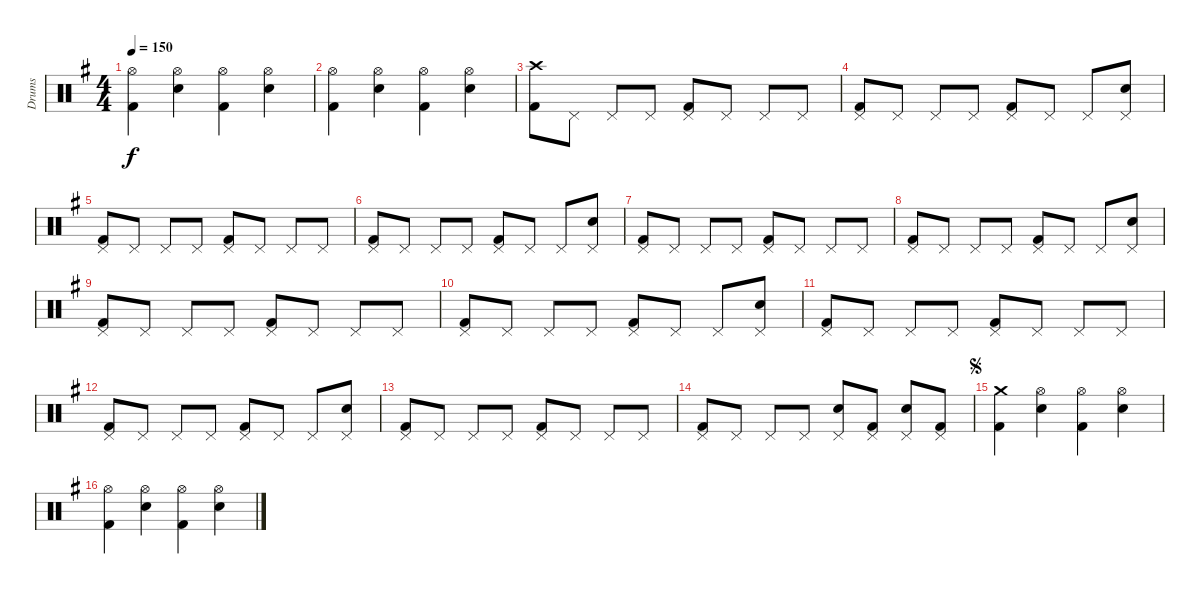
\track ("Drums" "Drums") {instrument percussion}
\staff {score}
\articulation defaults
\ts (4 4)
\tempo 150
\clef neutral
\ks g
("Hi-Hat (open)" "Kick (hit) 2").4{dy f} ("Hi-Hat (open)" "Electric Snare (hit)").4 ("Hi-Hat (open)" "Kick (hit) 2").4 ("Hi-Hat (open)" "Electric Snare (hit)").4 |
("Hi-Hat (open)" "Kick (hit) 2").4 ("Hi-Hat (open)" "Electric Snare (hit)").4 ("Hi-Hat (open)" "Kick (hit) 2").4 ("Hi-Hat (open)" "Electric Snare (hit)").4 |
("Crash high (hit)" "Kick (hit) 2").8 "Pedal Hi-Hat (hit)".8 "Pedal Hi-Hat (hit)".8 "Pedal Hi-Hat (hit)".8 ("Pedal Hi-Hat (hit)" "Kick (hit) 2").8 "Pedal Hi-Hat (hit)".8 "Pedal Hi-Hat (hit)".8 "Pedal Hi-Hat (hit)".8 |
("Pedal Hi-Hat (hit)" "Kick (hit) 2").8 "Pedal Hi-Hat (hit)".8 "Pedal Hi-Hat (hit)".8 "Pedal Hi-Hat (hit)".8 ("Pedal Hi-Hat (hit)" "Kick (hit) 2").8 "Pedal Hi-Hat (hit)".8 "Pedal Hi-Hat (hit)".8 ("Pedal Hi-Hat (hit)" "Electric Snare (hit)").8 |
("Pedal Hi-Hat (hit)" "Kick (hit) 2").8 "Pedal Hi-Hat (hit)".8 "Pedal Hi-Hat (hit)".8 "Pedal Hi-Hat (hit)".8 ("Pedal Hi-Hat (hit)" "Kick (hit) 2").8 "Pedal Hi-Hat (hit)".8 "Pedal Hi-Hat (hit)".8 "Pedal Hi-Hat (hit)".8 |
("Pedal Hi-Hat (hit)" "Kick (hit) 2").8 "Pedal Hi-Hat (hit)".8 "Pedal Hi-Hat (hit)".8 "Pedal Hi-Hat (hit)".8 ("Pedal Hi-Hat (hit)" "Kick (hit) 2").8 "Pedal Hi-Hat (hit)".8 "Pedal Hi-Hat (hit)".8 ("Pedal Hi-Hat (hit)" "Electric Snare (hit)").8 |
("Pedal Hi-Hat (hit)" "Kick (hit) 2").8 "Pedal Hi-Hat (hit)".8 "Pedal Hi-Hat (hit)".8 "Pedal Hi-Hat (hit)".8 ("Pedal Hi-Hat (hit)" "Kick (hit) 2").8 "Pedal Hi-Hat (hit)".8 "Pedal Hi-Hat (hit)".8 "Pedal Hi-Hat (hit)".8 |
("Pedal Hi-Hat (hit)" "Kick (hit) 2").8 "Pedal Hi-Hat (hit)".8 "Pedal Hi-Hat (hit)".8 "Pedal Hi-Hat (hit)".8 ("Pedal Hi-Hat (hit)" "Kick (hit) 2").8 "Pedal Hi-Hat (hit)".8 "Pedal Hi-Hat (hit)".8 ("Pedal Hi-Hat (hit)" "Electric Snare (hit)").8 |
("Pedal Hi-Hat (hit)" "Kick (hit) 2").8 "Pedal Hi-Hat (hit)".8 "Pedal Hi-Hat (hit)".8 "Pedal Hi-Hat (hit)".8 ("Pedal Hi-Hat (hit)" "Kick (hit) 2").8 "Pedal Hi-Hat (hit)".8 "Pedal Hi-Hat (hit)".8 "Pedal Hi-Hat (hit)".8 |
("Pedal Hi-Hat (hit)" "Kick (hit) 2").8 "Pedal Hi-Hat (hit)".8 "Pedal Hi-Hat (hit)".8 "Pedal Hi-Hat (hit)".8 ("Pedal Hi-Hat (hit)" "Kick (hit) 2").8 "Pedal Hi-Hat (hit)".8 "Pedal Hi-Hat (hit)".8 ("Pedal Hi-Hat (hit)" "Electric Snare (hit)").8 |
("Pedal Hi-Hat (hit)" "Kick (hit) 2").8 "Pedal Hi-Hat (hit)".8 "Pedal Hi-Hat (hit)".8 "Pedal Hi-Hat (hit)".8 ("Pedal Hi-Hat (hit)" "Kick (hit) 2").8 "Pedal Hi-Hat (hit)".8 "Pedal Hi-Hat (hit)".8 "Pedal Hi-Hat (hit)".8 |
("Pedal Hi-Hat (hit)" "Kick (hit) 2").8 "Pedal Hi-Hat (hit)".8 "Pedal Hi-Hat (hit)".8 "Pedal Hi-Hat (hit)".8 ("Pedal Hi-Hat (hit)" "Kick (hit) 2").8 "Pedal Hi-Hat (hit)".8 "Pedal Hi-Hat (hit)".8 ("Pedal Hi-Hat (hit)" "Electric Snare (hit)").8 |
("Pedal Hi-Hat (hit)" "Kick (hit) 2").8 "Pedal Hi-Hat (hit)".8 "Pedal Hi-Hat (hit)".8 "Pedal Hi-Hat (hit)".8 ("Pedal Hi-Hat (hit)" "Kick (hit) 2").8 "Pedal Hi-Hat (hit)".8 "Pedal Hi-Hat (hit)".8 "Pedal Hi-Hat (hit)".8 |
("Pedal Hi-Hat (hit)" "Kick (hit) 2").8 "Pedal Hi-Hat (hit)".8 "Pedal Hi-Hat (hit)".8 "Pedal Hi-Hat (hit)".8 ("Pedal Hi-Hat (hit)" "Electric Snare (hit)").8 ("Pedal Hi-Hat (hit)" "Kick (hit) 2").8 ("Pedal Hi-Hat (hit)" "Electric Snare (hit)").8 ("Pedal Hi-Hat (hit)" "Kick (hit) 2").8 |
\jump segno
("Crash medium (hit)" "Kick (hit) 2").4 ("Hi-Hat (open)" "Electric Snare (hit)").4 ("Hi-Hat (open)" "Kick (hit) 2").4 ("Hi-Hat (open)" "Electric Snare (hit)").4 |
("Hi-Hat (open)" "Kick (hit) 2").4 ("Hi-Hat (open)" "Electric Snare (hit)").4 ("Hi-Hat (open)" "Kick (hit) 2").4 ("Hi-Hat (open)" "Electric Snare (hit)").4
